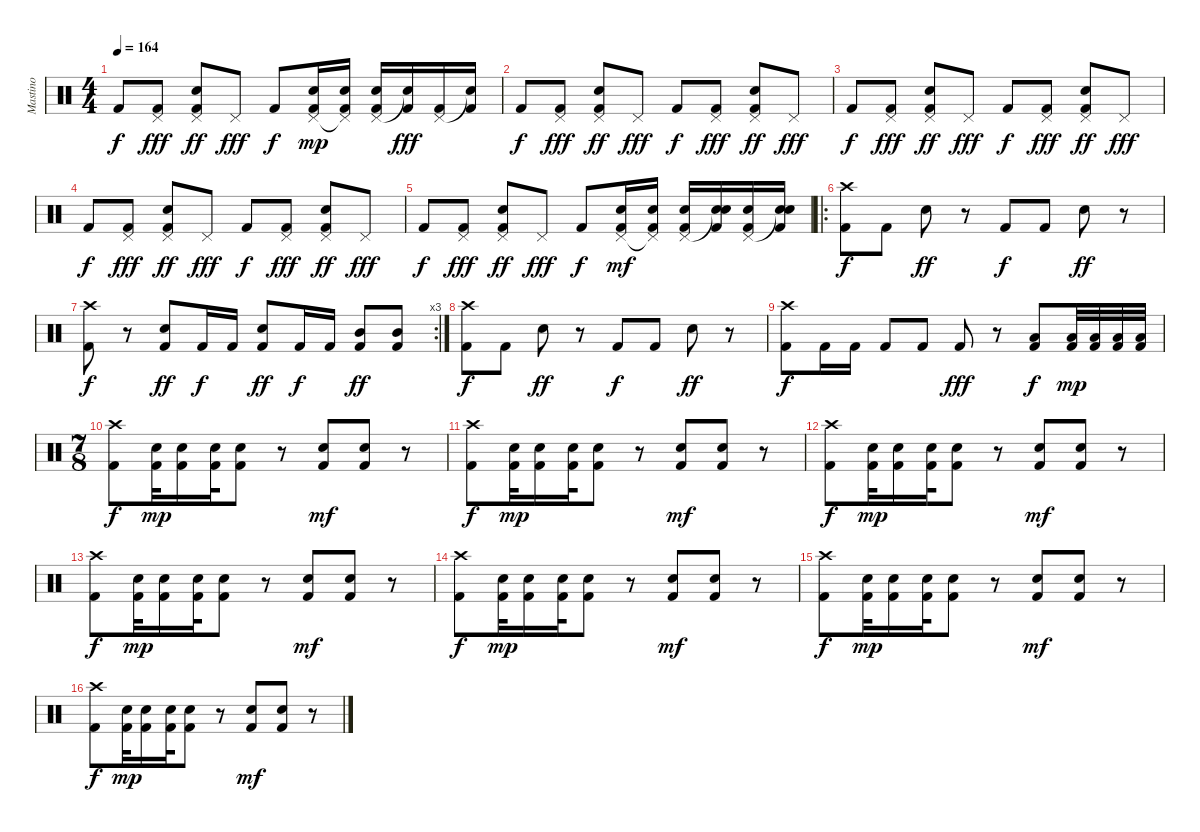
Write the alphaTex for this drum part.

\track ("Mastino" "Mastino") {instrument percussion}
\staff {score}
\articulation defaults
\ts (4 4)
\tempo 164
\clef neutral
\ks c "Kick (hit) 2".8{dy f}
("Pedal Hi-Hat (hit)" "Kick (hit) 2").8{dy fff} ("Pedal Hi-Hat (hit)" "Electric Snare (hit)" "Kick (hit) 2").8{dy ff} "Pedal Hi-Hat (hit)".8{dy fff} "Kick (hit) 2".8{dy f} ("Pedal Hi-Hat (hit)" "Electric Snare (hit)" "Kick (hit) 2").16{dy mp} ("Pedal Hi-Hat (hit)"{t} "Electric Snare (hit)" "Kick (hit) 2").16 ("Pedal Hi-Hat (hit)" "Electric Snare (hit)" "Kick (hit) 2").16 ("Snare (hit)"{t} "Kick (hit) 2").16{dy fff} ("Pedal Hi-Hat (hit)" "Kick (hit) 2").16 ("Snare (hit)"{t} "Kick (hit) 2").16 |
"Kick (hit) 2".8{dy f} ("Pedal Hi-Hat (hit)" "Kick (hit) 2").8{dy fff} ("Pedal Hi-Hat (hit)" "Electric Snare (hit)" "Kick (hit) 2").8{dy ff} "Pedal Hi-Hat (hit)".8{dy fff} "Kick (hit) 2".8{dy f} ("Pedal Hi-Hat (hit)" "Kick (hit) 2").8{dy fff} ("Pedal Hi-Hat (hit)" "Electric Snare (hit)" "Kick (hit) 2").8{dy ff} "Pedal Hi-Hat (hit)".8{dy fff} |
"Kick (hit) 2".8{dy f} ("Pedal Hi-Hat (hit)" "Kick (hit) 2").8{dy fff} ("Pedal Hi-Hat (hit)" "Electric Snare (hit)" "Kick (hit) 2").8{dy ff} "Pedal Hi-Hat (hit)".8{dy fff} "Kick (hit) 2".8{dy f} ("Pedal Hi-Hat (hit)" "Kick (hit) 2").8{dy fff} ("Pedal Hi-Hat (hit)" "Electric Snare (hit)" "Kick (hit) 2").8{dy ff} "Pedal Hi-Hat (hit)".8{dy fff} |
"Kick (hit) 2".8{dy f} ("Pedal Hi-Hat (hit)" "Kick (hit) 2").8{dy fff} ("Pedal Hi-Hat (hit)" "Electric Snare (hit)" "Kick (hit) 2").8{dy ff} "Pedal Hi-Hat (hit)".8{dy fff} "Kick (hit) 2".8{dy f} ("Pedal Hi-Hat (hit)" "Kick (hit) 2").8{dy fff} ("Pedal Hi-Hat (hit)" "Electric Snare (hit)" "Kick (hit) 2").8{dy ff} "Pedal Hi-Hat (hit)".8{dy fff} |
"Kick (hit) 2".8{dy f} ("Pedal Hi-Hat (hit)" "Kick (hit) 2").8{dy fff} ("Pedal Hi-Hat (hit)" "Electric Snare (hit)" "Kick (hit) 2").8{dy ff} "Pedal Hi-Hat (hit)".8{dy fff} "Kick (hit) 2".8{dy f} ("Pedal Hi-Hat (hit)" "Electric Snare (hit)" "Kick (hit) 2").16{dy mf} ("Pedal Hi-Hat (hit)"{t} "Electric Snare (hit)" "Kick (hit) 2").16 ("Pedal Hi-Hat (hit)" "Electric Snare (hit)" "Kick (hit) 2").16 ("Snare (hit)"{t} "Electric Snare (hit)" "Kick (hit) 2").16 ("Pedal Hi-Hat (hit)" "Electric Snare (hit)" "Kick (hit) 2").16 ("Snare (hit)"{t} "Electric Snare (hit)" "Kick (hit) 2").16 |
\ro
("Crash high (hit)" "Kick (hit) 2").8{dy f} "Kick (hit) 2".8 "Electric Snare (hit)".8{dy ff} r.8 "Kick (hit) 2".8{dy f} "Kick (hit) 2".8 "Electric Snare (hit)".8{dy ff} r.8 |
\rc 3
("Crash high (hit)" "Kick (hit) 2").8{dy f} r.8 ("Electric Snare (hit)" "Kick (hit) 2").8{dy ff} "Kick (hit) 2".16{dy f} "Kick (hit) 2".16 ("Electric Snare (hit)" "Kick (hit) 2").8{dy ff} "Kick (hit) 2".16{dy f} "Kick (hit) 2".16 ("Mid Tom (hit)" "Kick (hit) 2").8{dy ff} ("Mid Tom (hit)" "Kick (hit) 2").8 |
("Crash high (hit)" "Kick (hit) 2").8{dy f} "Kick (hit) 2".8 "Electric Snare (hit)".8{dy ff} r.8 "Kick (hit) 2".8{dy f} "Kick (hit) 2".8 "Electric Snare (hit)".8{dy ff} r.8 |
("Crash high (hit)" "Kick (hit) 2").8{dy f} "Kick (hit) 2".16 "Kick (hit) 2".16 "Kick (hit) 2".8 "Kick (hit) 2".8 "Kick (hit) 2".8{dy fff} r.8 ("Low Tom (hit)" "Kick (hit) 2").8{dy f} ("Low Tom (hit)" "Kick (hit) 2").32{dy mp} ("Low Tom (hit)" "Kick (hit) 2").32 ("Low Tom (hit)" "Kick (hit) 2").32 ("Low Tom (hit)" "Kick (hit) 2").32 |
\ts (7 8)
("Crash high (hit)" "Kick (hit) 2").8{dy f} ("Electric Snare (hit)" "Kick (hit) 2").32{dy mp} ("Electric Snare (hit)" "Kick (hit) 2").16 ("Electric Snare (hit)" "Kick (hit) 2").32 ("Electric Snare (hit)" "Kick (hit) 2").8 r.8 ("Electric Snare (hit)" "Kick (hit) 2").8{dy mf} ("Electric Snare (hit)" "Kick (hit) 2").8 r.8 |
("Crash high (hit)" "Kick (hit) 2").8{dy f} ("Electric Snare (hit)" "Kick (hit) 2").32{dy mp} ("Electric Snare (hit)" "Kick (hit) 2").16 ("Electric Snare (hit)" "Kick (hit) 2").32 ("Electric Snare (hit)" "Kick (hit) 2").8 r.8 ("Electric Snare (hit)" "Kick (hit) 2").8{dy mf} ("Electric Snare (hit)" "Kick (hit) 2").8 r.8 |
("Crash high (hit)" "Kick (hit) 2").8{dy f} ("Electric Snare (hit)" "Kick (hit) 2").32{dy mp} ("Electric Snare (hit)" "Kick (hit) 2").16 ("Electric Snare (hit)" "Kick (hit) 2").32 ("Electric Snare (hit)" "Kick (hit) 2").8 r.8 ("Electric Snare (hit)" "Kick (hit) 2").8{dy mf} ("Electric Snare (hit)" "Kick (hit) 2").8 r.8 |
("Crash high (hit)" "Kick (hit) 2").8{dy f} ("Electric Snare (hit)" "Kick (hit) 2").32{dy mp} ("Electric Snare (hit)" "Kick (hit) 2").16 ("Electric Snare (hit)" "Kick (hit) 2").32 ("Electric Snare (hit)" "Kick (hit) 2").8 r.8 ("Electric Snare (hit)" "Kick (hit) 2").8{dy mf} ("Electric Snare (hit)" "Kick (hit) 2").8 r.8 |
("Crash high (hit)" "Kick (hit) 2").8{dy f} ("Electric Snare (hit)" "Kick (hit) 2").32{dy mp} ("Electric Snare (hit)" "Kick (hit) 2").16 ("Electric Snare (hit)" "Kick (hit) 2").32 ("Electric Snare (hit)" "Kick (hit) 2").8 r.8 ("Electric Snare (hit)" "Kick (hit) 2").8{dy mf} ("Electric Snare (hit)" "Kick (hit) 2").8 r.8 |
("Crash high (hit)" "Kick (hit) 2").8{dy f} ("Electric Snare (hit)" "Kick (hit) 2").32{dy mp} ("Electric Snare (hit)" "Kick (hit) 2").16 ("Electric Snare (hit)" "Kick (hit) 2").32 ("Electric Snare (hit)" "Kick (hit) 2").8 r.8 ("Electric Snare (hit)" "Kick (hit) 2").8{dy mf} ("Electric Snare (hit)" "Kick (hit) 2").8 r.8 |
("Crash high (hit)" "Kick (hit) 2").8{dy f} ("Electric Snare (hit)" "Kick (hit) 2").32{dy mp} ("Electric Snare (hit)" "Kick (hit) 2").16 ("Electric Snare (hit)" "Kick (hit) 2").32 ("Electric Snare (hit)" "Kick (hit) 2").8 r.8 ("Electric Snare (hit)" "Kick (hit) 2").8{dy mf} ("Electric Snare (hit)" "Kick (hit) 2").8 r.8
